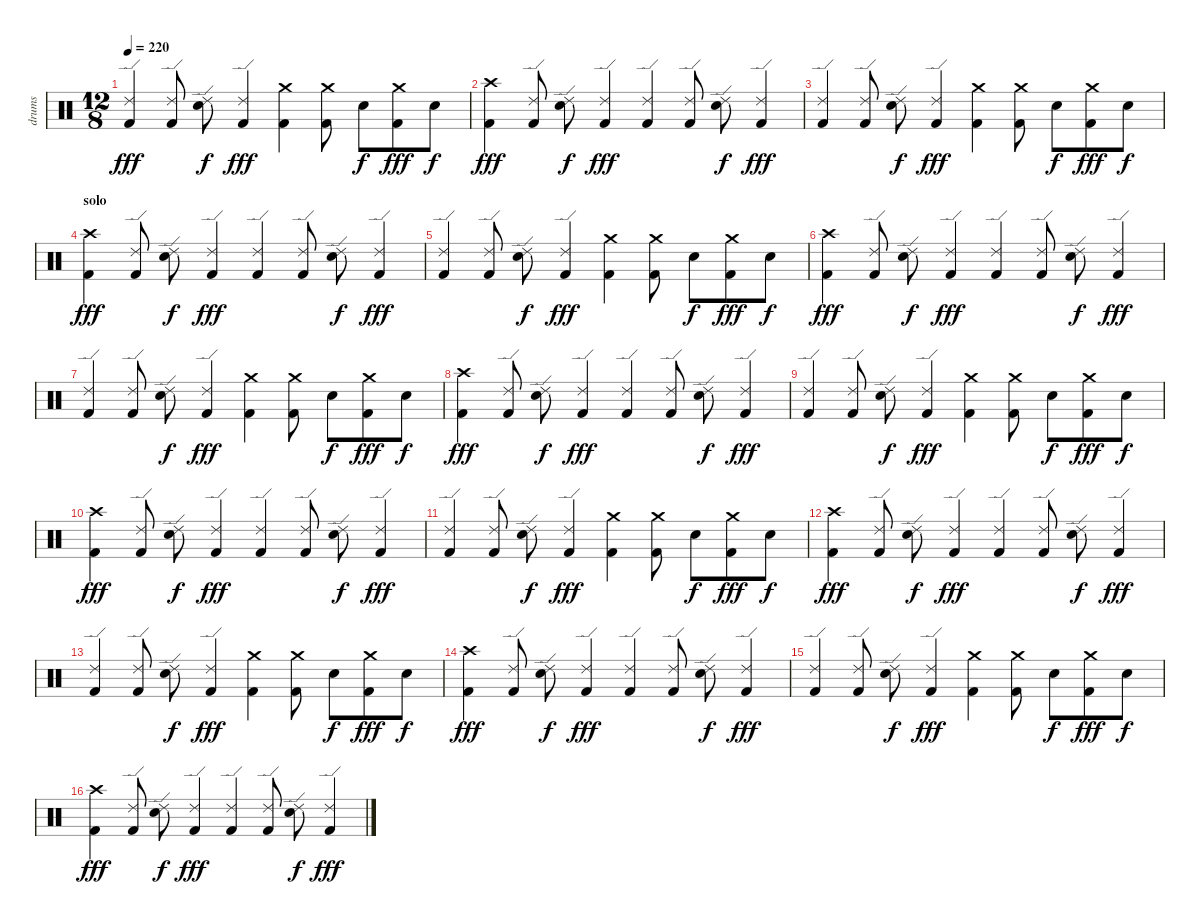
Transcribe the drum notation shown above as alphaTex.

\track ("drums" "drums") {instrument percussion}
\staff {score}
\articulation defaults
\ts (12 8)
\tempo 220
\clef neutral
\ks c
("Ride (edge) 2" "Kick (hit) 2").4{dy fff} ("Ride (edge) 2" "Kick (hit) 2").8 ("Ride (edge) 2" "Snare (hit) 2").8{dy f} ("Ride (edge) 2" "Kick (hit) 2").4{dy fff} ("Crash medium (hit)" "Kick (hit) 2").4 ("Crash medium (hit)" "Kick (hit) 2").8 "Snare (hit) 2".8{dy f} ("Crash medium (hit)" "Kick (hit) 2").8{dy fff} "Snare (hit) 2".8{dy f} |
("Crash high (hit)" "Kick (hit) 2").4{dy fff} ("Ride (edge) 2" "Kick (hit) 2").8 ("Ride (edge) 2" "Snare (hit) 2").8{dy f} ("Ride (edge) 2" "Kick (hit) 2").4{dy fff} ("Ride (edge) 2" "Kick (hit) 2").4 ("Ride (edge) 2" "Kick (hit) 2").8 ("Ride (edge) 2" "Snare (hit) 2").8{dy f} ("Ride (edge) 2" "Kick (hit) 2").4{dy fff} |
("Ride (edge) 2" "Kick (hit) 2").4 ("Ride (edge) 2" "Kick (hit) 2").8 ("Ride (edge) 2" "Snare (hit) 2").8{dy f} ("Ride (edge) 2" "Kick (hit) 2").4{dy fff} ("Crash medium (hit)" "Kick (hit) 2").4 ("Crash medium (hit)" "Kick (hit) 2").8 "Snare (hit) 2".8{dy f} ("Crash medium (hit)" "Kick (hit) 2").8{dy fff} "Snare (hit) 2".8{dy f} |
\section ("" "solo")
("Crash high (hit)" "Kick (hit) 2").4{dy fff} ("Ride (edge) 2" "Kick (hit) 2").8 ("Ride (edge) 2" "Snare (hit) 2").8{dy f} ("Ride (edge) 2" "Kick (hit) 2").4{dy fff} ("Ride (edge) 2" "Kick (hit) 2").4 ("Ride (edge) 2" "Kick (hit) 2").8 ("Ride (edge) 2" "Snare (hit) 2").8{dy f} ("Ride (edge) 2" "Kick (hit) 2").4{dy fff} |
("Ride (edge) 2" "Kick (hit) 2").4 ("Ride (edge) 2" "Kick (hit) 2").8 ("Ride (edge) 2" "Snare (hit) 2").8{dy f} ("Ride (edge) 2" "Kick (hit) 2").4{dy fff} ("Crash medium (hit)" "Kick (hit) 2").4 ("Crash medium (hit)" "Kick (hit) 2").8 "Snare (hit) 2".8{dy f} ("Crash medium (hit)" "Kick (hit) 2").8{dy fff} "Snare (hit) 2".8{dy f} |
("Crash high (hit)" "Kick (hit) 2").4{dy fff} ("Ride (edge) 2" "Kick (hit) 2").8 ("Ride (edge) 2" "Snare (hit) 2").8{dy f} ("Ride (edge) 2" "Kick (hit) 2").4{dy fff} ("Ride (edge) 2" "Kick (hit) 2").4 ("Ride (edge) 2" "Kick (hit) 2").8 ("Ride (edge) 2" "Snare (hit) 2").8{dy f} ("Ride (edge) 2" "Kick (hit) 2").4{dy fff} |
("Ride (edge) 2" "Kick (hit) 2").4 ("Ride (edge) 2" "Kick (hit) 2").8 ("Ride (edge) 2" "Snare (hit) 2").8{dy f} ("Ride (edge) 2" "Kick (hit) 2").4{dy fff} ("Crash medium (hit)" "Kick (hit) 2").4 ("Crash medium (hit)" "Kick (hit) 2").8 "Snare (hit) 2".8{dy f} ("Crash medium (hit)" "Kick (hit) 2").8{dy fff} "Snare (hit) 2".8{dy f} |
("Crash high (hit)" "Kick (hit) 2").4{dy fff} ("Ride (edge) 2" "Kick (hit) 2").8 ("Ride (edge) 2" "Snare (hit) 2").8{dy f} ("Ride (edge) 2" "Kick (hit) 2").4{dy fff} ("Ride (edge) 2" "Kick (hit) 2").4 ("Ride (edge) 2" "Kick (hit) 2").8 ("Ride (edge) 2" "Snare (hit) 2").8{dy f} ("Ride (edge) 2" "Kick (hit) 2").4{dy fff} |
("Ride (edge) 2" "Kick (hit) 2").4 ("Ride (edge) 2" "Kick (hit) 2").8 ("Ride (edge) 2" "Snare (hit) 2").8{dy f} ("Ride (edge) 2" "Kick (hit) 2").4{dy fff} ("Crash medium (hit)" "Kick (hit) 2").4 ("Crash medium (hit)" "Kick (hit) 2").8 "Snare (hit) 2".8{dy f} ("Crash medium (hit)" "Kick (hit) 2").8{dy fff} "Snare (hit) 2".8{dy f} |
("Crash high (hit)" "Kick (hit) 2").4{dy fff} ("Ride (edge) 2" "Kick (hit) 2").8 ("Ride (edge) 2" "Snare (hit) 2").8{dy f} ("Ride (edge) 2" "Kick (hit) 2").4{dy fff} ("Ride (edge) 2" "Kick (hit) 2").4 ("Ride (edge) 2" "Kick (hit) 2").8 ("Ride (edge) 2" "Snare (hit) 2").8{dy f} ("Ride (edge) 2" "Kick (hit) 2").4{dy fff} |
("Ride (edge) 2" "Kick (hit) 2").4 ("Ride (edge) 2" "Kick (hit) 2").8 ("Ride (edge) 2" "Snare (hit) 2").8{dy f} ("Ride (edge) 2" "Kick (hit) 2").4{dy fff} ("Crash medium (hit)" "Kick (hit) 2").4 ("Crash medium (hit)" "Kick (hit) 2").8 "Snare (hit) 2".8{dy f} ("Crash medium (hit)" "Kick (hit) 2").8{dy fff} "Snare (hit) 2".8{dy f} |
("Crash high (hit)" "Kick (hit) 2").4{dy fff} ("Ride (edge) 2" "Kick (hit) 2").8 ("Ride (edge) 2" "Snare (hit) 2").8{dy f} ("Ride (edge) 2" "Kick (hit) 2").4{dy fff} ("Ride (edge) 2" "Kick (hit) 2").4 ("Ride (edge) 2" "Kick (hit) 2").8 ("Ride (edge) 2" "Snare (hit) 2").8{dy f} ("Ride (edge) 2" "Kick (hit) 2").4{dy fff} |
("Ride (edge) 2" "Kick (hit) 2").4 ("Ride (edge) 2" "Kick (hit) 2").8 ("Ride (edge) 2" "Snare (hit) 2").8{dy f} ("Ride (edge) 2" "Kick (hit) 2").4{dy fff} ("Crash medium (hit)" "Kick (hit) 2").4 ("Crash medium (hit)" "Kick (hit) 2").8 "Snare (hit) 2".8{dy f} ("Crash medium (hit)" "Kick (hit) 2").8{dy fff} "Snare (hit) 2".8{dy f} |
("Crash high (hit)" "Kick (hit) 2").4{dy fff} ("Ride (edge) 2" "Kick (hit) 2").8 ("Ride (edge) 2" "Snare (hit) 2").8{dy f} ("Ride (edge) 2" "Kick (hit) 2").4{dy fff} ("Ride (edge) 2" "Kick (hit) 2").4 ("Ride (edge) 2" "Kick (hit) 2").8 ("Ride (edge) 2" "Snare (hit) 2").8{dy f} ("Ride (edge) 2" "Kick (hit) 2").4{dy fff} |
("Ride (edge) 2" "Kick (hit) 2").4 ("Ride (edge) 2" "Kick (hit) 2").8 ("Ride (edge) 2" "Snare (hit) 2").8{dy f} ("Ride (edge) 2" "Kick (hit) 2").4{dy fff} ("Crash medium (hit)" "Kick (hit) 2").4 ("Crash medium (hit)" "Kick (hit) 2").8 "Snare (hit) 2".8{dy f} ("Crash medium (hit)" "Kick (hit) 2").8{dy fff} "Snare (hit) 2".8{dy f} |
("Crash high (hit)" "Kick (hit) 2").4{dy fff} ("Ride (edge) 2" "Kick (hit) 2").8 ("Ride (edge) 2" "Snare (hit) 2").8{dy f} ("Ride (edge) 2" "Kick (hit) 2").4{dy fff} ("Ride (edge) 2" "Kick (hit) 2").4 ("Ride (edge) 2" "Kick (hit) 2").8 ("Ride (edge) 2" "Snare (hit) 2").8{dy f} ("Ride (edge) 2" "Kick (hit) 2").4{dy fff}
